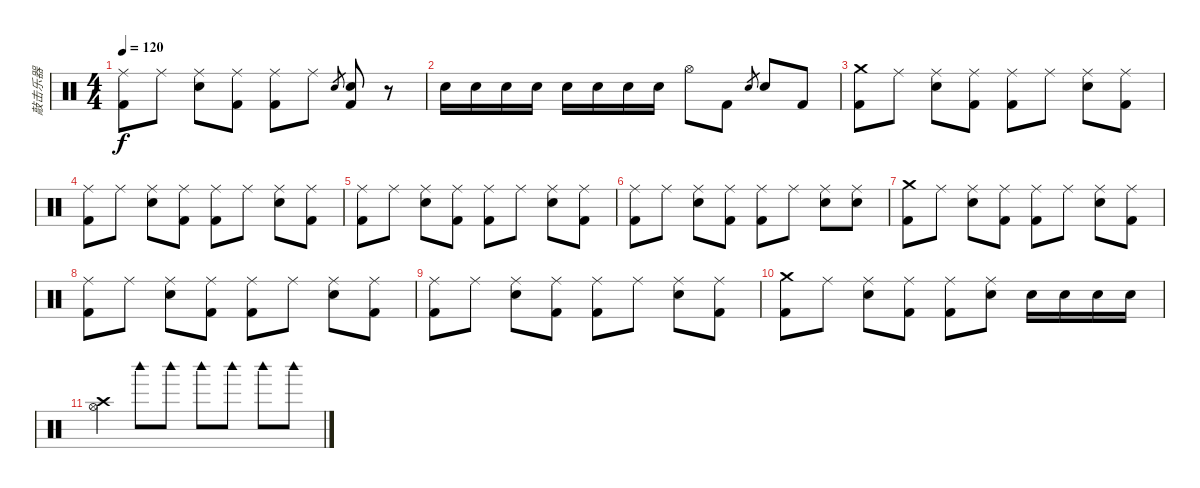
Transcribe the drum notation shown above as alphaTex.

\track ("敲击乐器" "敲击乐器") {instrument percussion}
\staff {score}
\articulation defaults
\ts (4 4)
\tempo 120
\clef neutral
\ks c
("Ride (middle)" "Kick (hit) 2").8{dy f} "Ride (middle)".8 ("Ride (middle)" "Electric Snare (hit)").8 ("Ride (middle)" "Kick (hit) 2").8 ("Ride (middle)" "Kick (hit) 2").8 "Ride (middle)".8 "Electric Snare (hit)".8{gr} ("Electric Snare (hit)" "Kick (hit) 2").8 r.8 |
"Electric Snare (hit)".16 "Electric Snare (hit)".16 "Electric Snare (hit)".16 "Electric Snare (hit)".16 "Electric Snare (hit)".16 "Electric Snare (hit)".16 "Electric Snare (hit)".16 "Electric Snare (hit)".16 "Hi-Hat (open)".8 "Kick (hit) 2".8 "Electric Snare (hit)".8{gr} "Electric Snare (hit)".8 "Kick (hit) 2".8 |
("Crash medium (hit)" "Kick (hit) 2").8 "Ride (middle)".8 ("Ride (middle)" "Electric Snare (hit)").8 ("Ride (middle)" "Kick (hit) 2").8 ("Ride (middle)" "Kick (hit) 2").8 "Ride (middle)".8 ("Ride (middle)" "Electric Snare (hit)").8 ("Ride (middle)" "Kick (hit) 2").8 |
("Ride (middle)" "Kick (hit) 2").8 "Ride (middle)".8 ("Ride (middle)" "Electric Snare (hit)").8 ("Ride (middle)" "Kick (hit) 2").8 ("Ride (middle)" "Kick (hit) 2").8 "Ride (middle)".8 ("Ride (middle)" "Electric Snare (hit)").8 ("Ride (middle)" "Kick (hit) 2").8 |
("Ride (middle)" "Kick (hit) 2").8 "Ride (middle)".8 ("Ride (middle)" "Electric Snare (hit)").8 ("Ride (middle)" "Kick (hit) 2").8 ("Ride (middle)" "Kick (hit) 2").8 "Ride (middle)".8 ("Ride (middle)" "Electric Snare (hit)").8 ("Ride (middle)" "Kick (hit) 2").8 |
("Ride (middle)" "Kick (hit) 2").8 "Ride (middle)".8 ("Ride (middle)" "Electric Snare (hit)").8 ("Ride (middle)" "Kick (hit) 2").8 ("Ride (middle)" "Kick (hit) 2").8 "Ride (middle)".8 ("Ride (middle)" "Electric Snare (hit)").8 ("Ride (middle)" "Electric Snare (hit)").8 |
("Crash medium (hit)" "Kick (hit) 2").8 "Ride (middle)".8 ("Ride (middle)" "Electric Snare (hit)").8 ("Ride (middle)" "Kick (hit) 2").8 ("Ride (middle)" "Kick (hit) 2").8 "Ride (middle)".8 ("Ride (middle)" "Electric Snare (hit)").8 ("Ride (middle)" "Kick (hit) 2").8 |
("Ride (middle)" "Kick (hit) 2").8 "Ride (middle)".8 ("Ride (middle)" "Electric Snare (hit)").8 ("Ride (middle)" "Kick (hit) 2").8 ("Ride (middle)" "Kick (hit) 2").8 "Ride (middle)".8 ("Ride (middle)" "Electric Snare (hit)").8 ("Ride (middle)" "Kick (hit) 2").8 |
("Ride (middle)" "Kick (hit) 2").8 "Ride (middle)".8 ("Ride (middle)" "Electric Snare (hit)").8 ("Ride (middle)" "Kick (hit) 2").8 ("Ride (middle)" "Kick (hit) 2").8 "Ride (middle)".8 ("Ride (middle)" "Electric Snare (hit)").8 ("Ride (middle)" "Kick (hit) 2").8 |
("Crash medium (hit)" "Kick (hit) 2").8 "Ride (middle)".8 ("Ride (middle)" "Electric Snare (hit)").8 ("Ride (middle)" "Kick (hit) 2").8 ("Ride (middle)" "Kick (hit) 2").8 ("Ride (middle)" "Electric Snare (hit)").8 "Electric Snare (hit)".16 "Electric Snare (hit)".16 "Electric Snare (hit)".16 "Electric Snare (hit)".16 |
("Crash high (hit)" "Hi-Hat (open)").4 "Woodblock high (hit)".8 "Woodblock high (hit)".8 "Woodblock high (hit)".8 "Woodblock high (hit)".8 "Woodblock high (hit)".8 "Woodblock high (hit)".8
